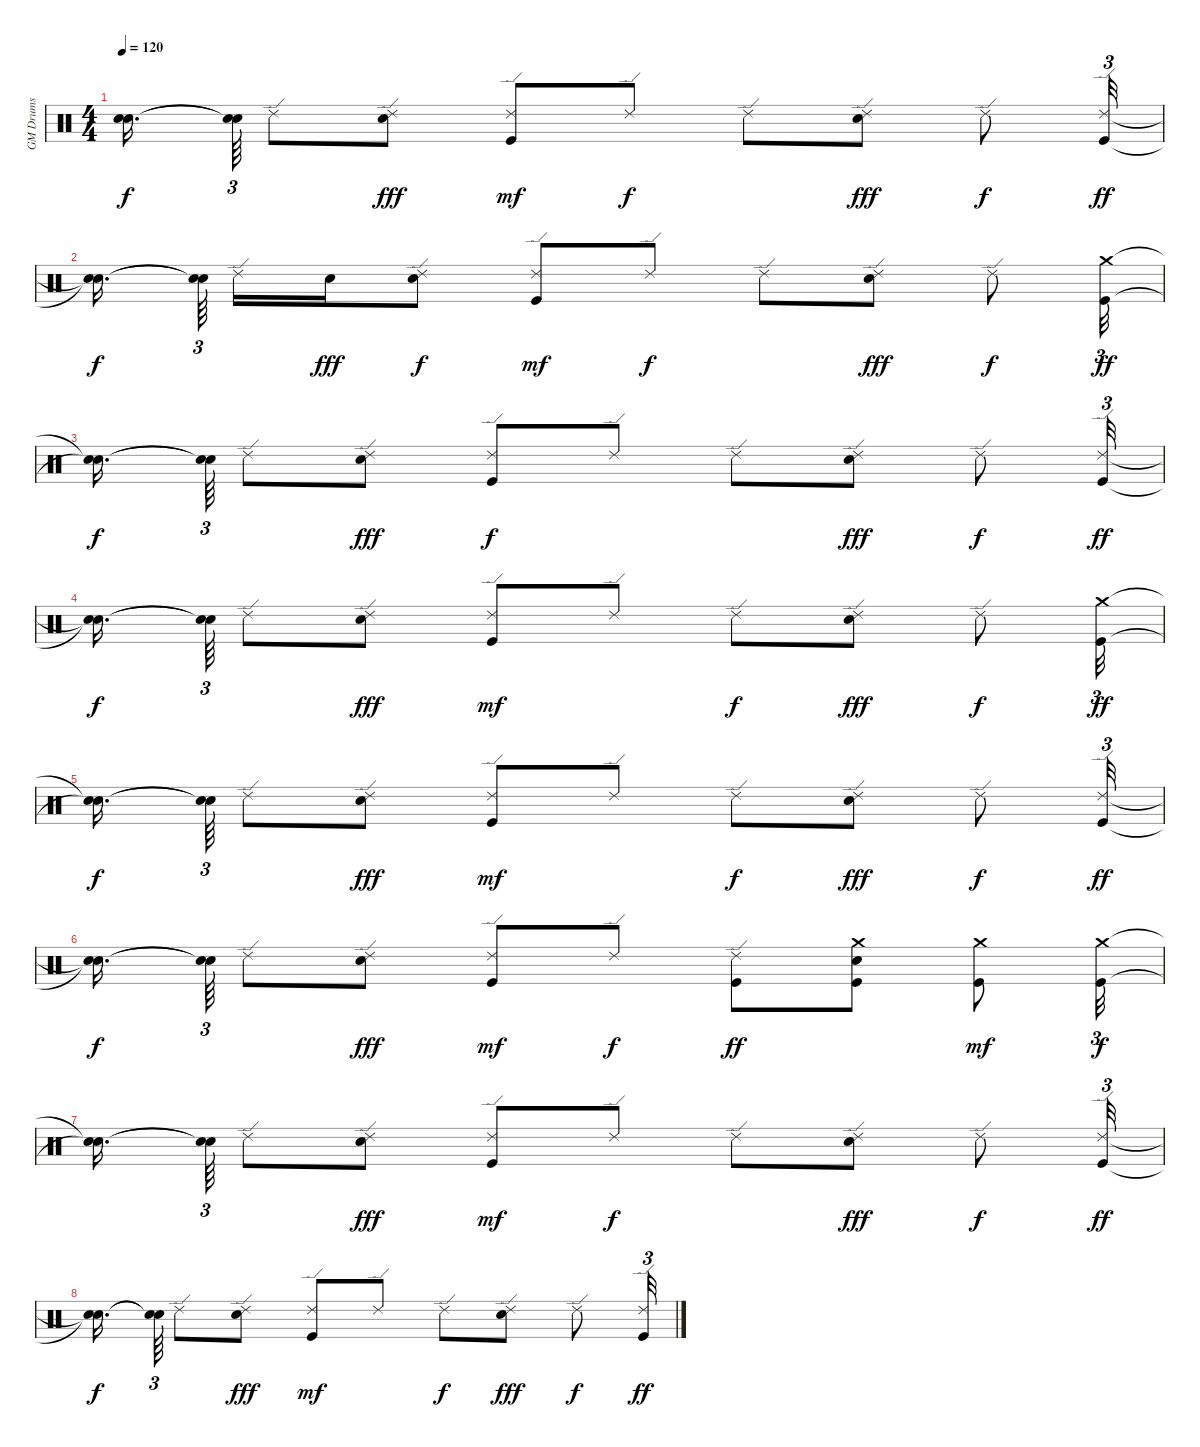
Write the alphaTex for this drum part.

\track ("GM Drums" "GM Drums") {instrument percussion}
\staff {score}
\articulation defaults
\ts (4 4)
\tempo 120
\clef neutral
\ks c
("Snare (hit)"{t} "Snare (hit)"{t}).16{d dy f} ("Snare (hit)"{t} "Snare (hit)"{t}).64{tu (3 2)} "Ride (edge) 2".8 ("Snare (hit) 2" "Ride (edge) 2").8{dy fff} ("Kick (hit)" "Ride (edge) 2").8{dy mf} "Ride (edge) 2".8{dy f} "Ride (edge) 2".8 ("Snare (hit) 2" "Ride (edge) 2").8{dy fff} "Ride (edge) 2".8{dy f} ("Kick (hit)" "Ride (edge) 2").32{tu (3 2) dy ff} |
("Snare (hit)"{t} "Snare (hit)"{t}).16{d dy f} ("Snare (hit)"{t} "Snare (hit)"{t}).64{tu (3 2)} "Ride (edge) 2".16 "Snare (hit) 2".16{dy fff} ("Snare (hit) 2" "Ride (edge) 2").8{dy f} ("Kick (hit)" "Ride (edge) 2").8{dy mf} "Ride (edge) 2".8{dy f} "Ride (edge) 2".8 ("Snare (hit) 2" "Ride (edge) 2").8{dy fff} "Ride (edge) 2".8{dy f} ("Kick (hit)" "Crash medium (hit)").32{tu (3 2) dy ff} |
("Snare (hit)"{t} "Snare (hit)"{t}).16{d dy f} ("Snare (hit)"{t} "Snare (hit)"{t}).64{tu (3 2)} "Ride (edge) 2".8 ("Snare (hit) 2" "Ride (edge) 2").8{dy fff} ("Kick (hit)" "Ride (edge) 2").8{dy f} "Ride (edge) 2".8 "Ride (edge) 2".8 ("Snare (hit) 2" "Ride (edge) 2").8{dy fff} "Ride (edge) 2".8{dy f} ("Kick (hit)" "Ride (edge) 2").32{tu (3 2) dy ff} |
("Snare (hit)"{t} "Snare (hit)"{t}).16{d dy f} ("Snare (hit)"{t} "Snare (hit)"{t}).64{tu (3 2)} "Ride (edge) 2".8 ("Snare (hit) 2" "Ride (edge) 2").8{dy fff} ("Kick (hit)" "Ride (edge) 2").8{dy mf} "Ride (edge) 2".8 "Ride (edge) 2".8{dy f} ("Snare (hit) 2" "Ride (edge) 2").8{dy fff} "Ride (edge) 2".8{dy f} ("Kick (hit)" "Crash medium (hit)").32{tu (3 2) dy ff} |
("Snare (hit)"{t} "Snare (hit)"{t}).16{d dy f} ("Snare (hit)"{t} "Snare (hit)"{t}).64{tu (3 2)} "Ride (edge) 2".8 ("Snare (hit) 2" "Ride (edge) 2").8{dy fff} ("Kick (hit)" "Ride (edge) 2").8{dy mf} "Ride (edge) 2".8 "Ride (edge) 2".8{dy f} ("Snare (hit) 2" "Ride (edge) 2").8{dy fff} "Ride (edge) 2".8{dy f} ("Kick (hit)" "Ride (edge) 2").32{tu (3 2) dy ff} |
("Snare (hit)"{t} "Snare (hit)"{t}).16{d dy f} ("Snare (hit)"{t} "Snare (hit)"{t}).64{tu (3 2)} "Ride (edge) 2".8 ("Snare (hit) 2" "Ride (edge) 2").8{dy fff} ("Kick (hit)" "Ride (edge) 2").8{dy mf} "Ride (edge) 2".8{dy f} ("Kick (hit)" "Ride (edge) 2").8{dy ff} ("Kick (hit)" "Snare (hit) 2" "Crash medium (hit)").8 ("Kick (hit)" "Crash medium (hit)").8{dy mf} ("Kick (hit)" "Crash medium (hit)").32{tu (3 2) dy f} |
("Snare (hit)"{t} "Snare (hit)"{t}).16{d} ("Snare (hit)"{t} "Snare (hit)"{t}).64{tu (3 2)} "Ride (edge) 2".8 ("Snare (hit) 2" "Ride (edge) 2").8{dy fff} ("Kick (hit)" "Ride (edge) 2").8{dy mf} "Ride (edge) 2".8{dy f} "Ride (edge) 2".8 ("Snare (hit) 2" "Ride (edge) 2").8{dy fff} "Ride (edge) 2".8{dy f} ("Kick (hit)" "Ride (edge) 2").32{tu (3 2) dy ff} |
("Snare (hit)"{t} "Snare (hit)"{t}).16{d dy f} ("Snare (hit)"{t} "Snare (hit)"{t}).64{tu (3 2)} "Ride (edge) 2".8 ("Snare (hit) 2" "Ride (edge) 2").8{dy fff} ("Kick (hit)" "Ride (edge) 2").8{dy mf} "Ride (edge) 2".8 "Ride (edge) 2".8{dy f} ("Snare (hit) 2" "Ride (edge) 2").8{dy fff} "Ride (edge) 2".8{dy f} ("Kick (hit)" "Ride (edge) 2").32{tu (3 2) dy ff}
